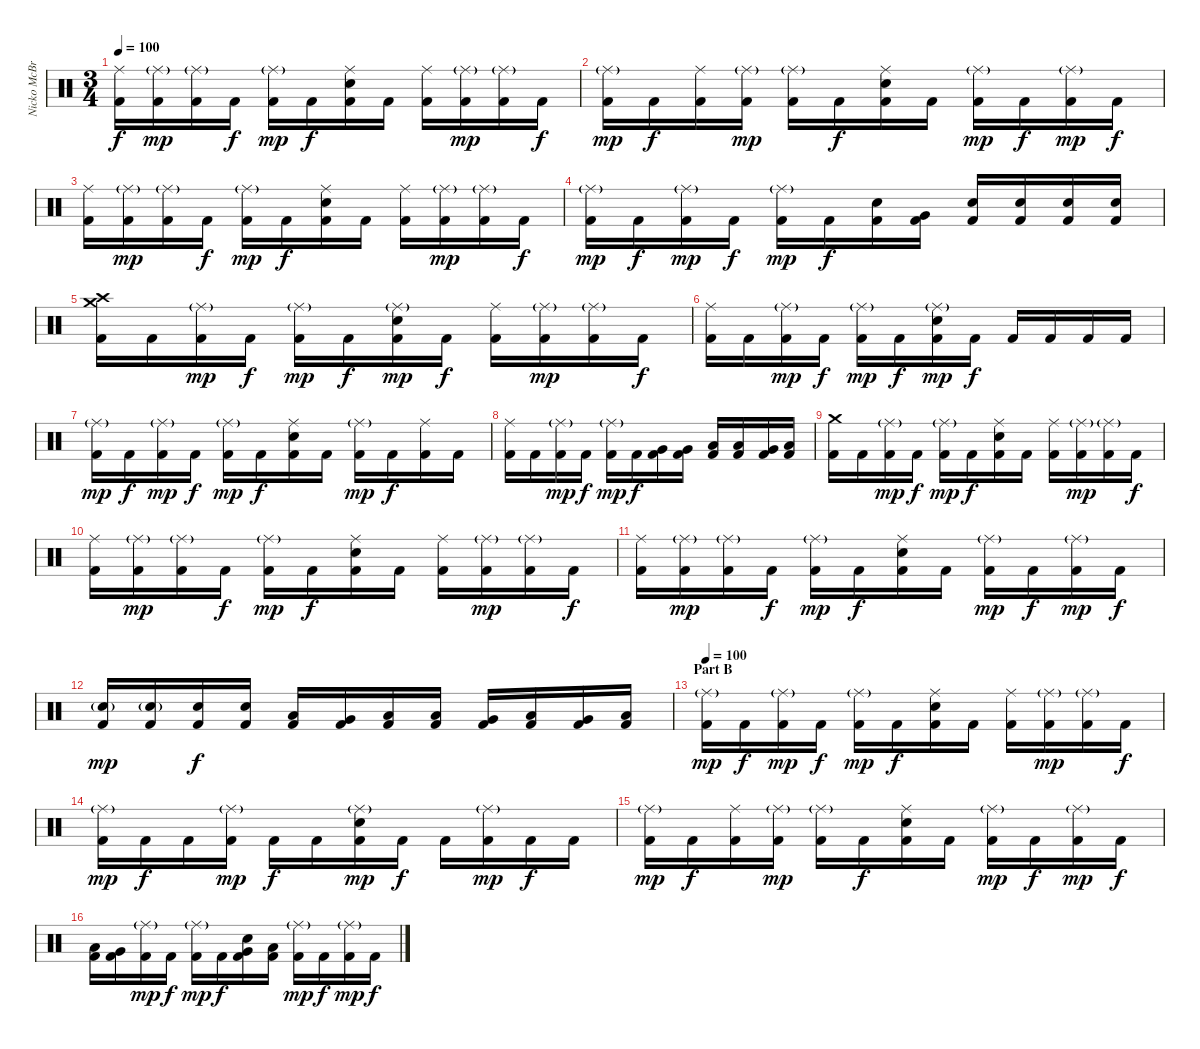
\track ("Nicko McBrain" "Nicko McBr") {instrument percussion}
\staff {score}
\articulation defaults
\ts (3 4)
\tempo 100
\clef neutral
\ks c
("Ride (middle)" "Kick (hit) 2").16{dy f} ("Ride (middle)"{g} "Kick (hit) 2").16{dy mp} ("Ride (middle)"{g} "Kick (hit) 2").16 "Kick (hit) 2".16{dy f} ("Ride (middle)"{g} "Kick (hit) 2").16{dy mp} "Kick (hit) 2".16{dy f} ("Ride (middle)" "Electric Snare (hit)" "Kick (hit) 2").16 "Kick (hit) 2".16 ("Ride (middle)" "Kick (hit) 2").16 ("Ride (middle)"{g} "Kick (hit) 2").16{dy mp} ("Ride (middle)"{g} "Kick (hit) 2").16 "Kick (hit) 2".16{dy f} |
("Ride (middle)"{g} "Kick (hit) 2").16{dy mp} "Kick (hit) 2".16{dy f} ("Ride (middle)" "Kick (hit) 2").16 ("Ride (middle)"{g} "Kick (hit) 2").16{dy mp} ("Ride (middle)"{g} "Kick (hit) 2").16 "Kick (hit) 2".16{dy f} ("Ride (middle)" "Electric Snare (hit)" "Kick (hit) 2").16 "Kick (hit) 2".16 ("Ride (middle)"{g} "Kick (hit) 2").16{dy mp} "Kick (hit) 2".16{dy f} ("Ride (middle)"{g} "Kick (hit) 2").16{dy mp} "Kick (hit) 2".16{dy f} |
("Ride (middle)" "Kick (hit) 2").16 ("Ride (middle)"{g} "Kick (hit) 2").16{dy mp} ("Ride (middle)"{g} "Kick (hit) 2").16 "Kick (hit) 2".16{dy f} ("Ride (middle)"{g} "Kick (hit) 2").16{dy mp} "Kick (hit) 2".16{dy f} ("Ride (middle)" "Electric Snare (hit)" "Kick (hit) 2").16 "Kick (hit) 2".16 ("Ride (middle)" "Kick (hit) 2").16 ("Ride (middle)"{g} "Kick (hit) 2").16{dy mp} ("Ride (middle)"{g} "Kick (hit) 2").16 "Kick (hit) 2".16{dy f} |
("Ride (middle)"{g} "Kick (hit) 2").16{dy mp} "Kick (hit) 2".16{dy f} ("Ride (middle)"{g} "Kick (hit) 2").16{dy mp} "Kick (hit) 2".16{dy f} ("Ride (middle)"{g} "Kick (hit) 2").16{dy mp} "Kick (hit) 2".16{dy f} ("Electric Snare (hit)" "Kick (hit) 2").16 ("Very Low Tom (hit)" "Kick (hit) 2").16 ("Electric Snare (hit)" "Kick (hit) 2").16 ("Electric Snare (hit)" "Kick (hit) 2").16 ("Electric Snare (hit)" "Kick (hit) 2").16 ("Electric Snare (hit)" "Kick (hit) 2").16 |
("Crash medium (hit)" "Crash high (hit)" "Kick (hit) 2").16 "Kick (hit) 2".16 ("Ride (middle)"{g} "Kick (hit) 2").16{dy mp} "Kick (hit) 2".16{dy f} ("Ride (middle)"{g} "Kick (hit) 2").16{dy mp} "Kick (hit) 2".16{dy f} ("Ride (middle)"{g} "Electric Snare (hit)" "Kick (hit) 2").16{dy mp} "Kick (hit) 2".16{dy f} ("Ride (middle)" "Kick (hit) 2").16 ("Ride (middle)"{g} "Kick (hit) 2").16{dy mp} ("Ride (middle)"{g} "Kick (hit) 2").16 "Kick (hit) 2".16{dy f} |
("Ride (middle)" "Kick (hit) 2").16 "Kick (hit) 2".16 ("Ride (middle)"{g} "Kick (hit) 2").16{dy mp} "Kick (hit) 2".16{dy f} ("Ride (middle)"{g} "Kick (hit) 2").16{dy mp} "Kick (hit) 2".16{dy f} ("Ride (middle)"{g} "Electric Snare (hit)" "Kick (hit) 2").16{dy mp} "Kick (hit) 2".16{dy f} "Kick (hit) 2".16 "Kick (hit) 2".16 "Kick (hit) 2".16 "Kick (hit) 2".16 |
("Ride (middle)"{g} "Kick (hit) 2").16{dy mp} "Kick (hit) 2".16{dy f} ("Ride (middle)"{g} "Kick (hit) 2").16{dy mp} "Kick (hit) 2".16{dy f} ("Ride (middle)"{g} "Kick (hit) 2").16{dy mp} "Kick (hit) 2".16{dy f} ("Ride (middle)" "Electric Snare (hit)" "Kick (hit) 2").16 "Kick (hit) 2".16 ("Ride (middle)"{g} "Kick (hit) 2").16{dy mp} "Kick (hit) 2".16{dy f} ("Ride (middle)" "Kick (hit) 2").16 "Kick (hit) 2".16 |
("Ride (middle)" "Kick (hit) 2").16 "Kick (hit) 2".16 ("Ride (middle)"{g} "Kick (hit) 2").16{dy mp} "Kick (hit) 2".16{dy f} ("Ride (middle)"{g} "Kick (hit) 2").16{dy mp} "Kick (hit) 2".16{dy f} ("Very Low Tom (hit)" "Kick (hit) 2").16 ("Very Low Tom (hit)" "Kick (hit) 2").16 ("Low Floor Tom (hit)" "Kick (hit) 2").16 ("Low Tom (hit)" "Kick (hit) 2").16 ("Very Low Tom (hit)" "Kick (hit) 2").16 ("Low Floor Tom (hit)" "Kick (hit) 2").16 |
("Crash medium (hit)" "Kick (hit) 2").16 "Kick (hit) 2".16 ("Ride (middle)"{g} "Kick (hit) 2").16{dy mp} "Kick (hit) 2".16{dy f} ("Ride (middle)"{g} "Kick (hit) 2").16{dy mp} "Kick (hit) 2".16{dy f} ("Ride (middle)" "Electric Snare (hit)" "Kick (hit) 2").16 "Kick (hit) 2".16 ("Ride (middle)" "Kick (hit) 2").16 ("Ride (middle)"{g} "Kick (hit) 2").16{dy mp} ("Ride (middle)"{g} "Kick (hit) 2").16 "Kick (hit) 2".16{dy f} |
("Ride (middle)" "Kick (hit) 2").16 ("Ride (middle)"{g} "Kick (hit) 2").16{dy mp} ("Ride (middle)"{g} "Kick (hit) 2").16 "Kick (hit) 2".16{dy f} ("Ride (middle)"{g} "Kick (hit) 2").16{dy mp} "Kick (hit) 2".16{dy f} ("Ride (middle)" "Electric Snare (hit)" "Kick (hit) 2").16 "Kick (hit) 2".16 ("Ride (middle)" "Kick (hit) 2").16 ("Ride (middle)"{g} "Kick (hit) 2").16{dy mp} ("Ride (middle)"{g} "Kick (hit) 2").16 "Kick (hit) 2".16{dy f} |
("Ride (middle)" "Kick (hit) 2").16 ("Ride (middle)"{g} "Kick (hit) 2").16{dy mp} ("Ride (middle)"{g} "Kick (hit) 2").16 "Kick (hit) 2".16{dy f} ("Ride (middle)"{g} "Kick (hit) 2").16{dy mp} "Kick (hit) 2".16{dy f} ("Ride (middle)" "Electric Snare (hit)" "Kick (hit) 2").16 "Kick (hit) 2".16 ("Ride (middle)"{g} "Kick (hit) 2").16{dy mp} "Kick (hit) 2".16{dy f} ("Ride (middle)"{g} "Kick (hit) 2").16{dy mp} "Kick (hit) 2".16{dy f} |
("Electric Snare (hit)"{g} "Kick (hit) 2").16{dy mp} ("Electric Snare (hit)"{g} "Kick (hit) 2").16 ("Electric Snare (hit)" "Kick (hit) 2").16{dy f} ("Electric Snare (hit)" "Kick (hit) 2").16 ("Low Tom (hit)" "Kick (hit) 2").16 ("Very Low Tom (hit)" "Kick (hit) 2").16 ("Low Floor Tom (hit)" "Kick (hit) 2").16 ("Low Tom (hit)" "Kick (hit) 2").16 ("Very Low Tom (hit)" "Kick (hit) 2").16 ("Low Floor Tom (hit)" "Kick (hit) 2").16 ("Very Low Tom (hit)" "Kick (hit) 2").16 ("Low Floor Tom (hit)" "Kick (hit) 2").16 |
\section ("" "Part B")
\tempo 100
("Ride (middle)"{g} "Kick (hit) 2").16{dy mp} "Kick (hit) 2".16{dy f} ("Ride (middle)"{g} "Kick (hit) 2").16{dy mp} "Kick (hit) 2".16{dy f} ("Ride (middle)"{g} "Kick (hit) 2").16{dy mp} "Kick (hit) 2".16{dy f} ("Ride (middle)" "Electric Snare (hit)" "Kick (hit) 2").16 "Kick (hit) 2".16 ("Ride (middle)" "Kick (hit) 2").16 ("Ride (middle)"{g} "Kick (hit) 2").16{dy mp} ("Ride (middle)"{g} "Kick (hit) 2").16 "Kick (hit) 2".16{dy f} |
("Ride (middle)"{g} "Kick (hit) 2").16{dy mp} "Kick (hit) 2".16{dy f} "Kick (hit) 2".16 ("Ride (middle)"{g} "Kick (hit) 2").16{dy mp} "Kick (hit) 2".16{dy f} "Kick (hit) 2".16 ("Ride (middle)"{g} "Electric Snare (hit)" "Kick (hit) 2").16{dy mp} "Kick (hit) 2".16{dy f} "Kick (hit) 2".16 ("Ride (middle)"{g} "Kick (hit) 2").16{dy mp} "Kick (hit) 2".16{dy f} "Kick (hit) 2".16 |
("Ride (middle)"{g} "Kick (hit) 2").16{dy mp} "Kick (hit) 2".16{dy f} ("Ride (middle)" "Kick (hit) 2").16 ("Ride (middle)"{g} "Kick (hit) 2").16{dy mp} ("Ride (middle)"{g} "Kick (hit) 2").16 "Kick (hit) 2".16{dy f} ("Ride (middle)" "Electric Snare (hit)" "Kick (hit) 2").16 "Kick (hit) 2".16 ("Ride (middle)"{g} "Kick (hit) 2").16{dy mp} "Kick (hit) 2".16{dy f} ("Ride (middle)"{g} "Kick (hit) 2").16{dy mp} "Kick (hit) 2".16{dy f} |
("Low Tom (hit)" "Kick (hit) 2").16 ("Very Low Tom (hit)" "Kick (hit) 2").16 ("Ride (middle)"{g} "Kick (hit) 2").16{dy mp} "Kick (hit) 2".16{dy f} ("Ride (middle)"{g} "Kick (hit) 2").16{dy mp} "Kick (hit) 2".16{dy f} ("Very Low Tom (hit)" "Electric Snare (hit)" "Kick (hit) 2").16 ("Low Floor Tom (hit)" "Kick (hit) 2").16 ("Ride (middle)"{g} "Kick (hit) 2").16{dy mp} "Kick (hit) 2".16{dy f} ("Ride (middle)"{g} "Kick (hit) 2").16{dy mp} "Kick (hit) 2".16{dy f}
